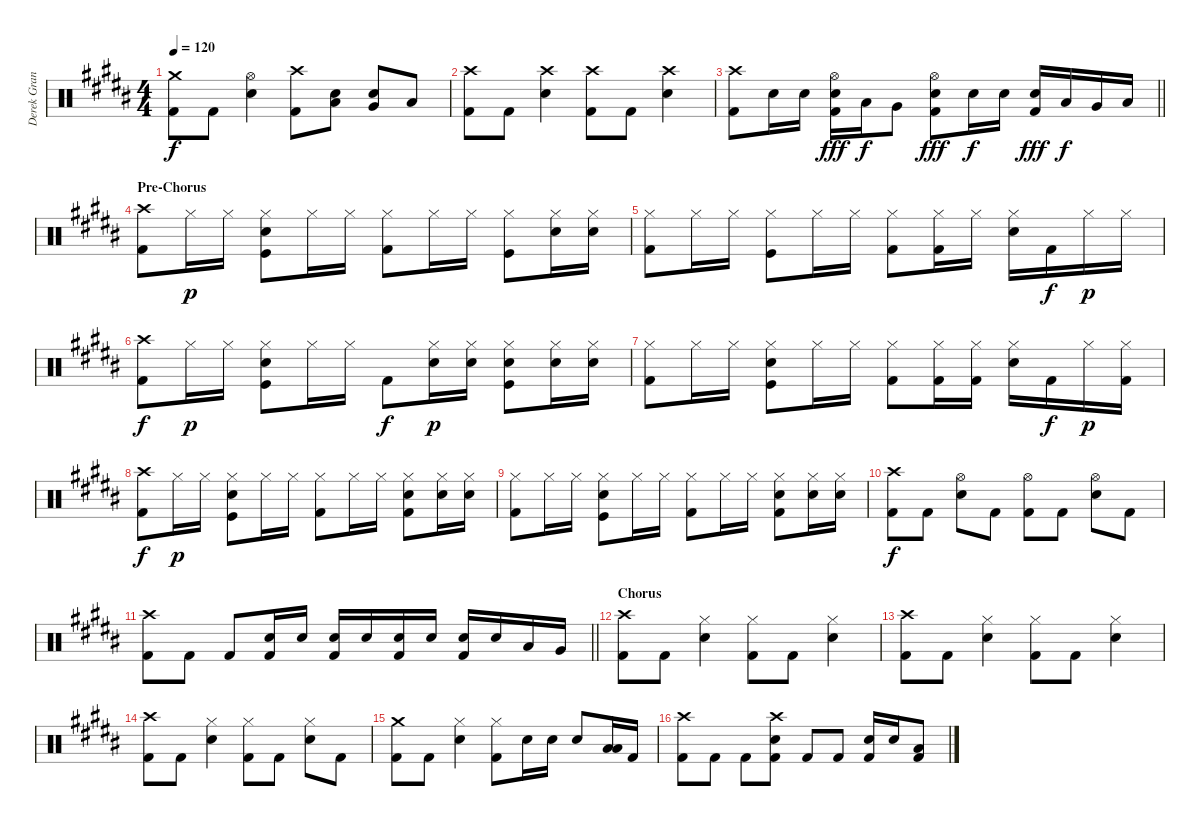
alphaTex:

\track ("Derek Grant - Drums" "Derek Gran") {instrument percussion}
\staff {score}
\articulation defaults
\ts (4 4)
\tempo 120
\clef neutral
\ks b
("Kick (hit) 2" "Crash medium (hit)").8{dy f} "Kick (hit) 2".8 ("Snare (hit) 2" "Hi-Hat (open)").4 ("Kick (hit) 2" "Crash high (hit)").8 ("Snare (hit) 2" "Low Tom (hit)").8 ("Snare (hit) 2" "Very Low Tom (hit)").8 "Low Floor Tom (hit)".8 |
("Kick (hit) 2" "Crash high (hit)").8 "Kick (hit) 2".8 ("Snare (hit) 2" "Crash high (hit)").4 ("Kick (hit) 2" "Crash high (hit)").8 "Kick (hit) 2".8 ("Snare (hit) 2" "Crash high (hit)").4 |
\barLineRight lightlight
("Kick (hit) 2" "Crash high (hit)").8 "Snare (hit) 2".16 "Snare (hit) 2".16 ("Snare (hit) 2" "Hi-Hat (open)" "Kick (hit) 2").16{dy fff} "Low Tom (hit)".16{dy f} "Very Low Tom (hit)".8 ("Snare (hit) 2" "Hi-Hat (open)" "Kick (hit) 2").8{dy fff} "Snare (hit) 2".16{dy f} "Snare (hit) 2".16 ("Snare (hit) 2" "Kick (hit) 2").16{dy fff} "Low Tom (hit)".16{dy f} "Very Low Tom (hit)".16 "Low Floor Tom (hit)".16 |
\section ("" "Pre-Chorus")
("Kick (hit) 2" "Crash high (hit)").8 "Hi-Hat (closed)".16{dy p} "Hi-Hat (closed)".16 ("Snare (hit) 2" "Kick (hit)" "Hi-Hat (closed)").8 "Hi-Hat (closed)".16 "Hi-Hat (closed)".16 ("Kick (hit) 2" "Hi-Hat (closed)").8 "Hi-Hat (closed)".16 "Hi-Hat (closed)".16 ("Kick (hit)" "Hi-Hat (closed)").8 ("Snare (hit) 2" "Hi-Hat (closed)").16 ("Snare (hit) 2" "Hi-Hat (closed)").16 |
("Kick (hit) 2" "Hi-Hat (closed)").8 "Hi-Hat (closed)".16 "Hi-Hat (closed)".16 ("Kick (hit)" "Hi-Hat (closed)").8 "Hi-Hat (closed)".16 "Hi-Hat (closed)".16 ("Kick (hit) 2" "Hi-Hat (closed)").8 ("Kick (hit) 2" "Hi-Hat (closed)").16 "Hi-Hat (closed)".16 ("Snare (hit) 2" "Hi-Hat (closed)").16 "Kick (hit) 2".16{dy f} "Hi-Hat (closed)".16{dy p} "Hi-Hat (closed)".16 |
("Kick (hit) 2" "Crash high (hit)").8{dy f} "Hi-Hat (closed)".16{dy p} "Hi-Hat (closed)".16 ("Snare (hit) 2" "Kick (hit)" "Hi-Hat (closed)").8 "Hi-Hat (closed)".16 "Hi-Hat (closed)".16 "Kick (hit) 2".8{dy f} ("Snare (hit) 2" "Hi-Hat (closed)").16{dy p} ("Snare (hit) 2" "Hi-Hat (closed)").16 ("Snare (hit) 2" "Kick (hit)" "Hi-Hat (closed)").8 ("Snare (hit) 2" "Hi-Hat (closed)").16 ("Snare (hit) 2" "Hi-Hat (closed)").16 |
("Kick (hit) 2" "Hi-Hat (closed)").8 "Hi-Hat (closed)".16 "Hi-Hat (closed)".16 ("Snare (hit) 2" "Kick (hit)" "Hi-Hat (closed)").8 "Hi-Hat (closed)".16 "Hi-Hat (closed)".16 ("Kick (hit) 2" "Hi-Hat (closed)").8 ("Kick (hit) 2" "Hi-Hat (closed)").16 ("Kick (hit) 2" "Hi-Hat (closed)").16 ("Snare (hit) 2" "Hi-Hat (closed)").16 "Kick (hit) 2".16{dy f} "Hi-Hat (closed)".16{dy p} ("Hi-Hat (closed)" "Kick (hit) 2").16 |
("Kick (hit) 2" "Crash high (hit)").8{dy f} "Hi-Hat (closed)".16{dy p} "Hi-Hat (closed)".16 ("Snare (hit) 2" "Kick (hit)" "Hi-Hat (closed)").8 "Hi-Hat (closed)".16 "Hi-Hat (closed)".16 ("Kick (hit) 2" "Hi-Hat (closed)").8 "Hi-Hat (closed)".16 "Hi-Hat (closed)".16 ("Kick (hit) 2" "Snare (hit) 2" "Hi-Hat (closed)").8 ("Snare (hit) 2" "Hi-Hat (closed)").16 ("Snare (hit) 2" "Hi-Hat (closed)").16 |
("Kick (hit) 2" "Hi-Hat (closed)").8 "Hi-Hat (closed)".16 "Hi-Hat (closed)".16 ("Snare (hit) 2" "Kick (hit)" "Hi-Hat (closed)").8 "Hi-Hat (closed)".16 "Hi-Hat (closed)".16 ("Kick (hit) 2" "Hi-Hat (closed)").8 "Hi-Hat (closed)".16 "Hi-Hat (closed)".16 ("Kick (hit) 2" "Snare (hit) 2" "Hi-Hat (closed)").8 ("Snare (hit) 2" "Hi-Hat (closed)").16 ("Snare (hit) 2" "Hi-Hat (closed)").16 |
("Kick (hit) 2" "Crash high (hit)").8{dy f} "Kick (hit) 2".8 ("Snare (hit) 2" "Hi-Hat (open)").8 "Kick (hit) 2".8 ("Kick (hit) 2" "Hi-Hat (open)").8 "Kick (hit) 2".8 ("Snare (hit) 2" "Hi-Hat (open)").8 "Kick (hit) 2".8 |
\barLineRight lightlight
("Kick (hit) 2" "Crash high (hit)").8 "Kick (hit) 2".8 "Kick (hit) 2".8 ("Kick (hit) 2" "Snare (hit) 2").16 "Snare (hit) 2".16 ("Kick (hit) 2" "Snare (hit) 2").16 "Snare (hit) 2".16 ("Kick (hit) 2" "Snare (hit) 2").16 "Snare (hit) 2".16 ("Kick (hit) 2" "Snare (hit) 2").16 "Snare (hit) 2".16 "Low Tom (hit)".16 "Very Low Tom (hit)".16 |
\section ("" "Chorus")
("Kick (hit) 2" "Crash high (hit)").8 "Kick (hit) 2".8 ("Snare (hit) 2" "Hi-Hat (closed)").4 ("Kick (hit) 2" "Hi-Hat (closed)").8 "Kick (hit) 2".8 ("Snare (hit) 2" "Hi-Hat (closed)").4 |
("Kick (hit) 2" "Crash high (hit)").8 "Kick (hit) 2".8 ("Snare (hit) 2" "Hi-Hat (closed)").4 ("Kick (hit) 2" "Hi-Hat (closed)").8 "Kick (hit) 2".8 ("Snare (hit) 2" "Hi-Hat (closed)").4 |
("Kick (hit) 2" "Crash high (hit)").8 "Kick (hit) 2".8 ("Snare (hit) 2" "Hi-Hat (closed)").4 ("Kick (hit) 2" "Hi-Hat (closed)").8 "Kick (hit) 2".8 ("Snare (hit) 2" "Hi-Hat (closed)").8 "Kick (hit) 2".8 |
("Kick (hit) 2" "Crash medium (hit)").8 "Kick (hit) 2".8 ("Snare (hit) 2" "Hi-Hat (closed)").4 ("Kick (hit) 2" "Hi-Hat (closed)").8 "Electric Snare (hit)".16 "Electric Snare (hit)".16 "Electric Snare (hit)".8 ("Low Floor Tom (hit)" "Low Tom (hit)").16 "Kick (hit) 2".16 |
("Kick (hit) 2" "Crash high (hit)").8 "Kick (hit) 2".8 "Kick (hit) 2".8 ("Snare (hit) 2" "Kick (hit) 2" "Crash high (hit)").8 "Kick (hit) 2".8 "Kick (hit) 2".8 ("Kick (hit) 2" "Snare (hit) 2").16 "Snare (hit) 2".16 ("Kick (hit) 2" "Low Floor Tom (hit)").8
